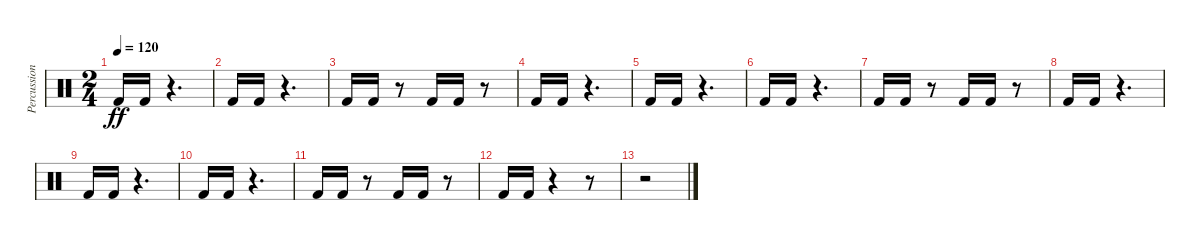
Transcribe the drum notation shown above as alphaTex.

\track ("Percussion" "Percussion") {instrument percussion}
\staff {score}
\articulation defaults
\ts (2 4)
\tempo 120
\clef neutral
\ks c "Kick (hit) 2".16{dy ff} "Kick (hit) 2".16
r.4{d} |
"Kick (hit) 2".16 "Kick (hit) 2".16 r.4{d} |
"Kick (hit) 2".16 "Kick (hit) 2".16 r.8 "Kick (hit) 2".16 "Kick (hit) 2".16 r.8 |
"Kick (hit) 2".16 "Kick (hit) 2".16 r.4{d} |
"Kick (hit) 2".16 "Kick (hit) 2".16 r.4{d} |
"Kick (hit) 2".16 "Kick (hit) 2".16 r.4{d} |
"Kick (hit) 2".16 "Kick (hit) 2".16 r.8 "Kick (hit) 2".16 "Kick (hit) 2".16 r.8 |
"Kick (hit) 2".16 "Kick (hit) 2".16 r.4{d} |
"Kick (hit) 2".16 "Kick (hit) 2".16 r.4{d} |
"Kick (hit) 2".16 "Kick (hit) 2".16 r.4{d} |
"Kick (hit) 2".16 "Kick (hit) 2".16 r.8 "Kick (hit) 2".16 "Kick (hit) 2".16 r.8 |
"Kick (hit) 2".16 "Kick (hit) 2".16 r.4 r.8 |
r.2
